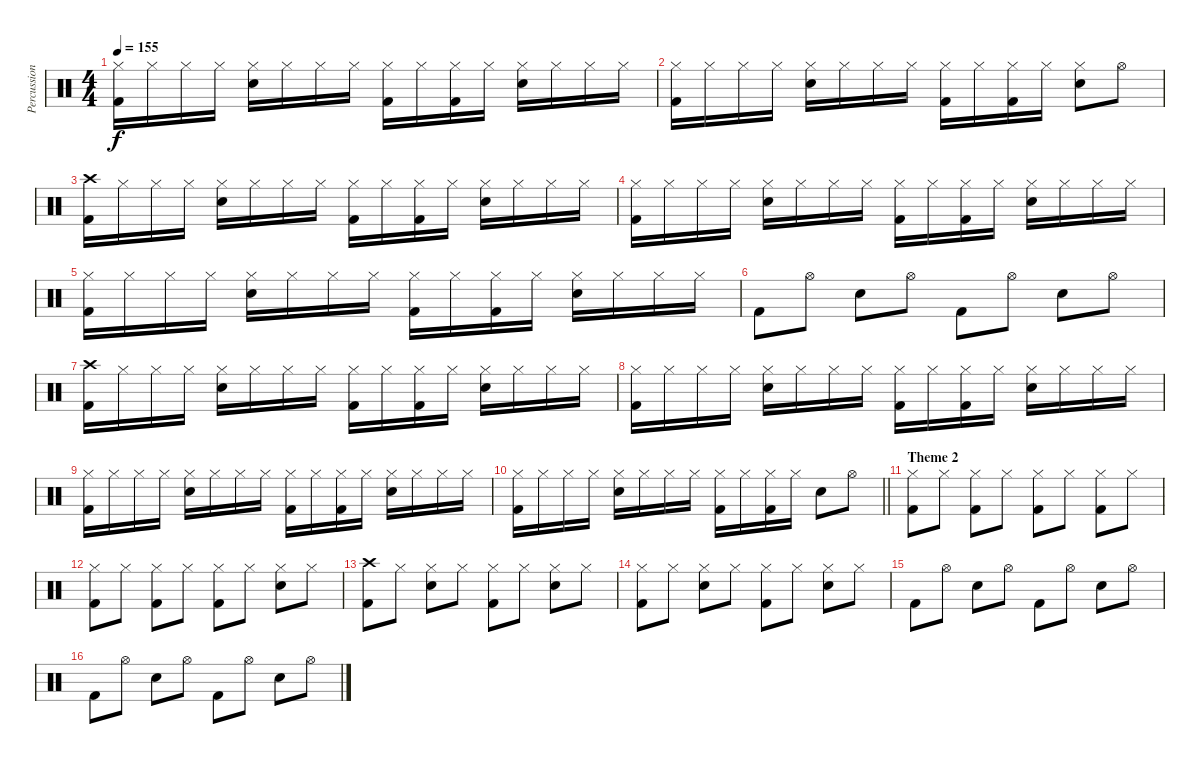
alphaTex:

\track ("Percussioni" "Percussion") {instrument percussion}
\staff {score}
\articulation defaults
\ts (4 4)
\tempo 155
\clef neutral
\ks c
("Hi-Hat (closed)" "Kick (hit) 2").16{dy f} "Hi-Hat (closed)".16 "Hi-Hat (closed)".16 "Hi-Hat (closed)".16 ("Hi-Hat (closed)" "Snare (hit) 2").16 "Hi-Hat (closed)".16 "Hi-Hat (closed)".16 "Hi-Hat (closed)".16 ("Hi-Hat (closed)" "Kick (hit) 2").16 "Hi-Hat (closed)".16 ("Hi-Hat (closed)" "Kick (hit) 2").16 "Hi-Hat (closed)".16 ("Hi-Hat (closed)" "Snare (hit) 2").16 "Hi-Hat (closed)".16 "Hi-Hat (closed)".16 "Hi-Hat (closed)".16 |
("Hi-Hat (closed)" "Kick (hit) 2").16 "Hi-Hat (closed)".16 "Hi-Hat (closed)".16 "Hi-Hat (closed)".16 ("Hi-Hat (closed)" "Snare (hit) 2").16 "Hi-Hat (closed)".16 "Hi-Hat (closed)".16 "Hi-Hat (closed)".16 ("Hi-Hat (closed)" "Kick (hit) 2").16 "Hi-Hat (closed)".16 ("Hi-Hat (closed)" "Kick (hit) 2").16 "Hi-Hat (closed)".16 ("Hi-Hat (closed)" "Snare (hit) 2").8 "Hi-Hat (open)".8 |
("Crash high (hit)" "Kick (hit) 2").16 "Hi-Hat (closed)".16 "Hi-Hat (closed)".16 "Hi-Hat (closed)".16 ("Hi-Hat (closed)" "Snare (hit) 2").16 "Hi-Hat (closed)".16 "Hi-Hat (closed)".16 "Hi-Hat (closed)".16 ("Hi-Hat (closed)" "Kick (hit) 2").16 "Hi-Hat (closed)".16 ("Hi-Hat (closed)" "Kick (hit) 2").16 "Hi-Hat (closed)".16 ("Hi-Hat (closed)" "Snare (hit) 2").16 "Hi-Hat (closed)".16 "Hi-Hat (closed)".16 "Hi-Hat (closed)".16 |
("Hi-Hat (closed)" "Kick (hit) 2").16 "Hi-Hat (closed)".16 "Hi-Hat (closed)".16 "Hi-Hat (closed)".16 ("Hi-Hat (closed)" "Snare (hit) 2").16 "Hi-Hat (closed)".16 "Hi-Hat (closed)".16 "Hi-Hat (closed)".16 ("Hi-Hat (closed)" "Kick (hit) 2").16 "Hi-Hat (closed)".16 ("Hi-Hat (closed)" "Kick (hit) 2").16 "Hi-Hat (closed)".16 ("Hi-Hat (closed)" "Snare (hit) 2").16 "Hi-Hat (closed)".16 "Hi-Hat (closed)".16 "Hi-Hat (closed)".16 |
("Hi-Hat (closed)" "Kick (hit) 2").16 "Hi-Hat (closed)".16 "Hi-Hat (closed)".16 "Hi-Hat (closed)".16 ("Hi-Hat (closed)" "Snare (hit) 2").16 "Hi-Hat (closed)".16 "Hi-Hat (closed)".16 "Hi-Hat (closed)".16 ("Hi-Hat (closed)" "Kick (hit) 2").16 "Hi-Hat (closed)".16 ("Hi-Hat (closed)" "Kick (hit) 2").16 "Hi-Hat (closed)".16 ("Hi-Hat (closed)" "Snare (hit) 2").16 "Hi-Hat (closed)".16 "Hi-Hat (closed)".16 "Hi-Hat (closed)".16 |
"Kick (hit) 2".8 "Hi-Hat (open)".8 "Snare (hit) 2".8 "Hi-Hat (open)".8 "Kick (hit) 2".8 "Hi-Hat (open)".8 "Snare (hit) 2".8 "Hi-Hat (open)".8 |
("Crash high (hit)" "Kick (hit) 2").16 "Hi-Hat (closed)".16 "Hi-Hat (closed)".16 "Hi-Hat (closed)".16 ("Hi-Hat (closed)" "Snare (hit) 2").16 "Hi-Hat (closed)".16 "Hi-Hat (closed)".16 "Hi-Hat (closed)".16 ("Hi-Hat (closed)" "Kick (hit) 2").16 "Hi-Hat (closed)".16 ("Hi-Hat (closed)" "Kick (hit) 2").16 "Hi-Hat (closed)".16 ("Hi-Hat (closed)" "Snare (hit) 2").16 "Hi-Hat (closed)".16 "Hi-Hat (closed)".16 "Hi-Hat (closed)".16 |
("Hi-Hat (closed)" "Kick (hit) 2").16 "Hi-Hat (closed)".16 "Hi-Hat (closed)".16 "Hi-Hat (closed)".16 ("Hi-Hat (closed)" "Snare (hit) 2").16 "Hi-Hat (closed)".16 "Hi-Hat (closed)".16 "Hi-Hat (closed)".16 ("Hi-Hat (closed)" "Kick (hit) 2").16 "Hi-Hat (closed)".16 ("Hi-Hat (closed)" "Kick (hit) 2").16 "Hi-Hat (closed)".16 ("Hi-Hat (closed)" "Snare (hit) 2").16 "Hi-Hat (closed)".16 "Hi-Hat (closed)".16 "Hi-Hat (closed)".16 |
("Hi-Hat (closed)" "Kick (hit) 2").16 "Hi-Hat (closed)".16 "Hi-Hat (closed)".16 "Hi-Hat (closed)".16 ("Hi-Hat (closed)" "Snare (hit) 2").16 "Hi-Hat (closed)".16 "Hi-Hat (closed)".16 "Hi-Hat (closed)".16 ("Hi-Hat (closed)" "Kick (hit) 2").16 "Hi-Hat (closed)".16 ("Hi-Hat (closed)" "Kick (hit) 2").16 "Hi-Hat (closed)".16 ("Hi-Hat (closed)" "Snare (hit) 2").16 "Hi-Hat (closed)".16 "Hi-Hat (closed)".16 "Hi-Hat (closed)".16 |
\barLineRight lightlight
("Hi-Hat (closed)" "Kick (hit) 2").16 "Hi-Hat (closed)".16 "Hi-Hat (closed)".16 "Hi-Hat (closed)".16 ("Hi-Hat (closed)" "Snare (hit) 2").16 "Hi-Hat (closed)".16 "Hi-Hat (closed)".16 "Hi-Hat (closed)".16 ("Hi-Hat (closed)" "Kick (hit) 2").16 "Hi-Hat (closed)".16 ("Hi-Hat (closed)" "Kick (hit) 2").16 "Hi-Hat (closed)".16 "Snare (hit) 2".8 "Hi-Hat (open)".8 |
\section ("" "Theme 2")
("Hi-Hat (closed)" "Kick (hit) 2").8 "Hi-Hat (closed)".8 ("Hi-Hat (closed)" "Kick (hit) 2").8 "Hi-Hat (closed)".8 ("Hi-Hat (closed)" "Kick (hit) 2").8 "Hi-Hat (closed)".8 ("Hi-Hat (closed)" "Kick (hit) 2").8 "Hi-Hat (closed)".8 |
("Hi-Hat (closed)" "Kick (hit) 2").8 "Hi-Hat (closed)".8 ("Hi-Hat (closed)" "Kick (hit) 2").8 "Hi-Hat (closed)".8 ("Hi-Hat (closed)" "Kick (hit) 2").8 "Hi-Hat (closed)".8 ("Hi-Hat (closed)" "Snare (hit) 2").8 "Hi-Hat (closed)".8 |
("Crash high (hit)" "Kick (hit) 2").8 "Hi-Hat (closed)".8 ("Hi-Hat (closed)" "Snare (hit) 2").8 "Hi-Hat (closed)".8 ("Hi-Hat (closed)" "Kick (hit) 2").8 "Hi-Hat (closed)".8 ("Hi-Hat (closed)" "Snare (hit) 2").8 "Hi-Hat (closed)".8 |
("Hi-Hat (closed)" "Kick (hit) 2").8 "Hi-Hat (closed)".8 ("Hi-Hat (closed)" "Snare (hit) 2").8 "Hi-Hat (closed)".8 ("Hi-Hat (closed)" "Kick (hit) 2").8 "Hi-Hat (closed)".8 ("Hi-Hat (closed)" "Snare (hit) 2").8 "Hi-Hat (closed)".8 |
"Kick (hit) 2".8 "Hi-Hat (open)".8 "Snare (hit) 2".8 "Hi-Hat (open)".8 "Kick (hit) 2".8 "Hi-Hat (open)".8 "Snare (hit) 2".8 "Hi-Hat (open)".8 |
"Kick (hit) 2".8 "Hi-Hat (open)".8 "Snare (hit) 2".8 "Hi-Hat (open)".8 "Kick (hit) 2".8 "Hi-Hat (open)".8 "Snare (hit) 2".8 "Hi-Hat (open)".8
